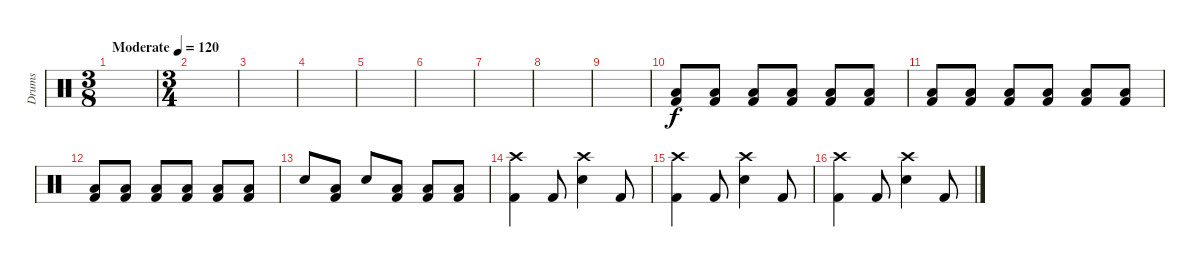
\track ("Drums" "Drums") {instrument percussion}
\staff {score}
\articulation defaults
\ts (3 8)
\tempo (120 "Moderate")
\clef neutral
\ks c
|
\ts (3 4)
|
|
|
|
|
|
|
|
("Kick (hit) 2" "Low Floor Tom (hit)").8 ("Kick (hit) 2" "Low Floor Tom (hit)").8 ("Kick (hit) 2" "Low Floor Tom (hit)").8 ("Kick (hit) 2" "Low Floor Tom (hit)").8 ("Kick (hit) 2" "Low Floor Tom (hit)").8 ("Kick (hit) 2" "Low Floor Tom (hit)").8 |
("Kick (hit) 2" "Low Floor Tom (hit)").8 ("Kick (hit) 2" "Low Floor Tom (hit)").8 ("Kick (hit) 2" "Low Floor Tom (hit)").8 ("Kick (hit) 2" "Low Floor Tom (hit)").8 ("Kick (hit) 2" "Low Floor Tom (hit)").8 ("Kick (hit) 2" "Low Floor Tom (hit)").8 |
("Kick (hit) 2" "Low Floor Tom (hit)").8 ("Kick (hit) 2" "Low Floor Tom (hit)").8 ("Kick (hit) 2" "Low Floor Tom (hit)").8 ("Kick (hit) 2" "Low Floor Tom (hit)").8 ("Kick (hit) 2" "Low Floor Tom (hit)").8 ("Kick (hit) 2" "Low Floor Tom (hit)").8 |
"Snare (hit) 2".8 ("Kick (hit) 2" "Low Floor Tom (hit)").8 "Snare (hit) 2".8 ("Kick (hit) 2" "Low Floor Tom (hit)").8 ("Kick (hit) 2" "Low Floor Tom (hit)").8 ("Kick (hit) 2" "Low Floor Tom (hit)").8 |
("Crash high (hit)" "Kick (hit) 2").4 "Kick (hit) 2".8 ("Crash high (hit)" "Snare (hit) 2").4 "Kick (hit) 2".8 |
("Crash high (hit)" "Kick (hit) 2").4 "Kick (hit) 2".8 ("Crash high (hit)" "Snare (hit) 2").4 "Kick (hit) 2".8 |
("Crash high (hit)" "Kick (hit) 2").4 "Kick (hit) 2".8 ("Crash high (hit)" "Snare (hit) 2").4 "Kick (hit) 2".8
